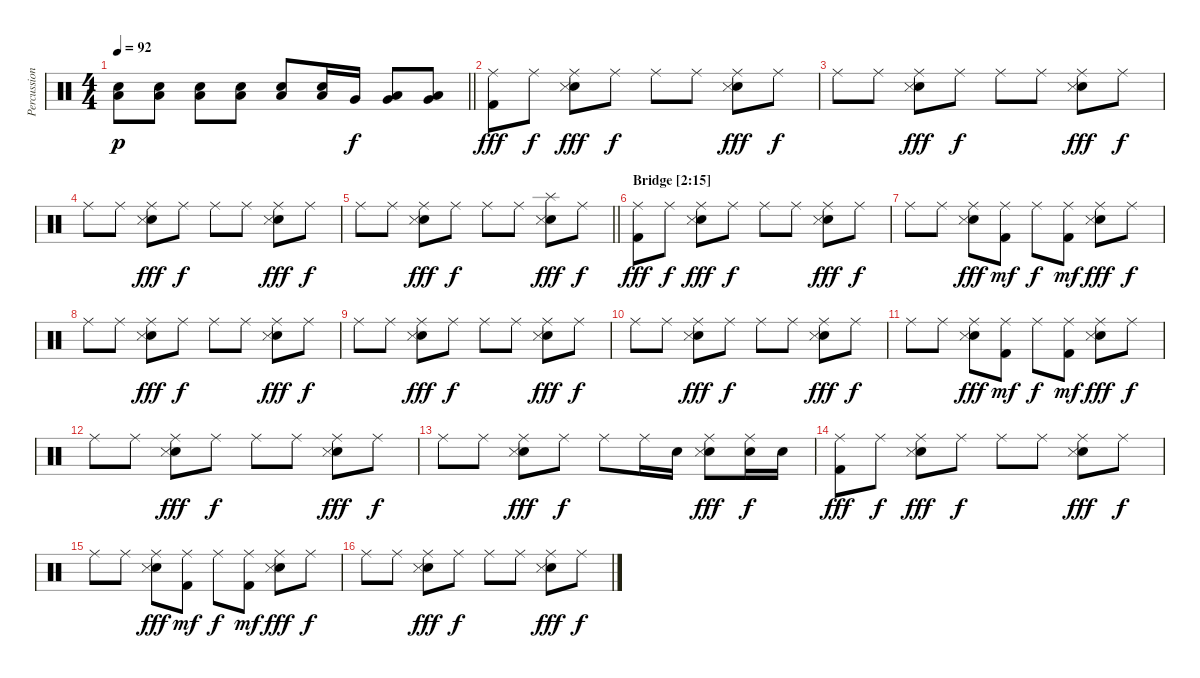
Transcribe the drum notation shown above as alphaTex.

\track ("Percussion" "Percussion") {instrument percussion}
\staff {score}
\articulation defaults
\ts (4 4)
\tempo 92
\clef neutral
\barLineRight lightlight
\ks c
("Low Tom (hit)" "Snare (hit) 2").8{dy p} ("Low Tom (hit)" "Snare (hit) 2").8 ("Low Tom (hit)" "Snare (hit) 2").8 ("Low Tom (hit)" "Snare (hit) 2").8 ("Low Tom (hit)" "Snare (hit) 2").8 ("Low Tom (hit)" "Snare (hit) 2").16 "Very Low Tom (hit)".16{dy f} ("Very Low Tom (hit)" "Low Tom (hit)").8 ("Low Tom (hit)" "Very Low Tom (hit)").8 |
("Ride (middle)" "Kick (hit) 2").8{dy fff} "Ride (middle)".8{dy f} ("Ride (middle)" "Snare (hit) 2" "Snare (side stick) 3").8{dy fff} "Ride (middle)".8{dy f} "Ride (middle)".8 "Ride (middle)".8 ("Ride (middle)" "Snare (hit) 2" "Snare (side stick) 3").8{dy fff} "Ride (middle)".8{dy f} |
"Ride (middle)".8 "Ride (middle)".8 ("Ride (middle)" "Snare (hit) 2" "Snare (side stick) 3").8{dy fff} "Ride (middle)".8{dy f} "Ride (middle)".8 "Ride (middle)".8 ("Ride (middle)" "Snare (hit) 2" "Snare (side stick) 3").8{dy fff} "Ride (middle)".8{dy f} |
"Ride (middle)".8 "Ride (middle)".8 ("Ride (middle)" "Snare (hit) 2" "Snare (side stick) 3").8{dy fff} "Ride (middle)".8{dy f} "Ride (middle)".8 "Ride (middle)".8 ("Ride (middle)" "Snare (hit) 2" "Snare (side stick) 3").8{dy fff} "Ride (middle)".8{dy f} |
\barLineRight lightlight "Ride (middle)".8 "Ride (middle)".8
("Ride (middle)" "Snare (hit) 2" "Snare (side stick) 3").8{dy fff} "Ride (middle)".8{dy f} "Ride (middle)".8 "Ride (middle)".8 ("Splash (hit)" "Snare (hit) 2" "Snare (side stick) 3").8{dy fff} "Ride (middle)".8{dy f} |
\section ("" "Bridge [2:15]")
("Ride (middle)" "Kick (hit) 2").8{dy fff} "Ride (middle)".8{dy f} ("Ride (middle)" "Snare (hit) 2" "Snare (side stick) 3").8{dy fff} "Ride (middle)".8{dy f} "Ride (middle)".8 "Ride (middle)".8 ("Ride (middle)" "Snare (hit) 2" "Snare (side stick) 3").8{dy fff} "Ride (middle)".8{dy f} |
"Ride (middle)".8 "Ride (middle)".8 ("Ride (middle)" "Snare (hit) 2" "Snare (side stick) 3").8{dy fff} ("Ride (middle)" "Kick (hit) 2").8{dy mf} "Ride (middle)".8{dy f} ("Ride (middle)" "Kick (hit) 2").8{dy mf} ("Ride (middle)" "Snare (hit) 2" "Snare (side stick) 3").8{dy fff} "Ride (middle)".8{dy f} |
"Ride (middle)".8 "Ride (middle)".8 ("Ride (middle)" "Snare (hit) 2" "Snare (side stick) 3").8{dy fff} "Ride (middle)".8{dy f} "Ride (middle)".8 "Ride (middle)".8 ("Ride (middle)" "Snare (hit) 2" "Snare (side stick) 3").8{dy fff} "Ride (middle)".8{dy f} |
"Ride (middle)".8 "Ride (middle)".8 ("Ride (middle)" "Snare (hit) 2" "Snare (side stick) 3").8{dy fff} "Ride (middle)".8{dy f} "Ride (middle)".8 "Ride (middle)".8 ("Ride (middle)" "Snare (hit) 2" "Snare (side stick) 3").8{dy fff} "Ride (middle)".8{dy f} |
"Ride (middle)".8 "Ride (middle)".8 ("Ride (middle)" "Snare (hit) 2" "Snare (side stick) 3").8{dy fff} "Ride (middle)".8{dy f} "Ride (middle)".8 "Ride (middle)".8 ("Ride (middle)" "Snare (hit) 2" "Snare (side stick) 3").8{dy fff} "Ride (middle)".8{dy f} |
"Ride (middle)".8 "Ride (middle)".8 ("Ride (middle)" "Snare (hit) 2" "Snare (side stick) 3").8{dy fff} ("Ride (middle)" "Kick (hit) 2").8{dy mf} "Ride (middle)".8{dy f} ("Ride (middle)" "Kick (hit) 2").8{dy mf} ("Ride (middle)" "Snare (hit) 2" "Snare (side stick) 3").8{dy fff} "Ride (middle)".8{dy f} |
"Ride (middle)".8 "Ride (middle)".8 ("Ride (middle)" "Snare (hit) 2" "Snare (side stick) 3").8{dy fff} "Ride (middle)".8{dy f} "Ride (middle)".8 "Ride (middle)".8 ("Ride (middle)" "Snare (hit) 2" "Snare (side stick) 3").8{dy fff} "Ride (middle)".8{dy f} |
"Ride (middle)".8 "Ride (middle)".8 ("Ride (middle)" "Snare (hit) 2" "Snare (side stick) 3").8{dy fff} "Ride (middle)".8{dy f} "Ride (middle)".8 "Ride (middle)".16 "Snare (hit) 2".16 ("Ride (middle)" "Snare (hit) 2" "Snare (side stick) 3").8{dy fff} ("Ride (middle)" "Snare (hit) 2").16{dy f} "Snare (hit) 2".16 |
("Ride (middle)" "Kick (hit) 2").8{dy fff} "Ride (middle)".8{dy f} ("Ride (middle)" "Snare (hit) 2" "Snare (side stick) 3").8{dy fff} "Ride (middle)".8{dy f} "Ride (middle)".8 "Ride (middle)".8 ("Ride (middle)" "Snare (hit) 2" "Snare (side stick) 3").8{dy fff} "Ride (middle)".8{dy f} |
"Ride (middle)".8 "Ride (middle)".8 ("Ride (middle)" "Snare (hit) 2" "Snare (side stick) 3").8{dy fff} ("Ride (middle)" "Kick (hit) 2").8{dy mf} "Ride (middle)".8{dy f} ("Ride (middle)" "Kick (hit) 2").8{dy mf} ("Ride (middle)" "Snare (hit) 2" "Snare (side stick) 3").8{dy fff} "Ride (middle)".8{dy f} |
"Ride (middle)".8 "Ride (middle)".8 ("Ride (middle)" "Snare (hit) 2" "Snare (side stick) 3").8{dy fff} "Ride (middle)".8{dy f} "Ride (middle)".8 "Ride (middle)".8 ("Ride (middle)" "Snare (hit) 2" "Snare (side stick) 3").8{dy fff} "Ride (middle)".8{dy f}
